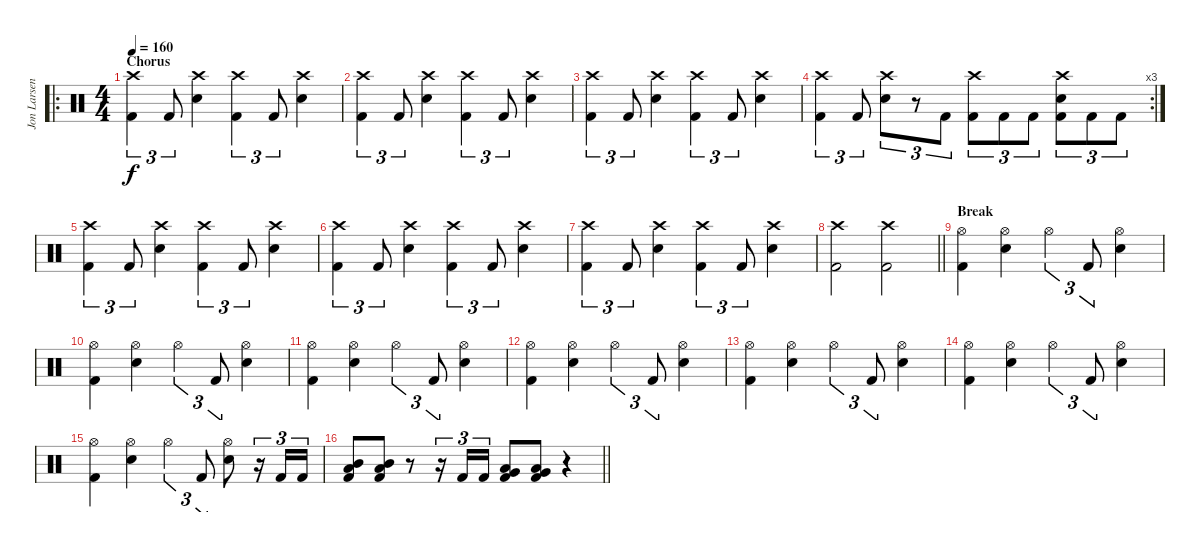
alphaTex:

\track ("Jon Larsen" "Jon Larsen") {instrument percussion}
\staff {score}
\articulation defaults
\ro
\ts (4 4)
\section ("" "Chorus")
\tempo 160
\clef neutral
\ks c
("Crash high (hit)" "Kick (hit) 2").4{tu (3 2) dy f} "Kick (hit) 2".8{tu (3 2)} ("Crash high (hit)" "Electric Snare (hit)").4 ("Crash high (hit)" "Kick (hit) 2").4{tu (3 2)} "Kick (hit) 2".8{tu (3 2)} ("Crash high (hit)" "Electric Snare (hit)").4 |
("Crash high (hit)" "Kick (hit) 2").4{tu (3 2)} "Kick (hit) 2".8{tu (3 2)} ("Crash high (hit)" "Electric Snare (hit)").4 ("Crash high (hit)" "Kick (hit) 2").4{tu (3 2)} "Kick (hit) 2".8{tu (3 2)} ("Crash high (hit)" "Electric Snare (hit)").4 |
("Crash high (hit)" "Kick (hit) 2").4{tu (3 2)} "Kick (hit) 2".8{tu (3 2)} ("Crash high (hit)" "Electric Snare (hit)").4 ("Crash high (hit)" "Kick (hit) 2").4{tu (3 2)} "Kick (hit) 2".8{tu (3 2)} ("Crash high (hit)" "Electric Snare (hit)").4 |
\rc 3
("Crash high (hit)" "Kick (hit) 2").4{tu (3 2)} "Kick (hit) 2".8{tu (3 2)} ("Crash high (hit)" "Electric Snare (hit)").8{tu (3 2)} r.8{tu (3 2)} "Kick (hit) 2".8{tu (3 2)} ("Crash high (hit)" "Kick (hit) 2").8{tu (3 2)} "Kick (hit) 2".8{tu (3 2)} "Kick (hit) 2".8{tu (3 2)} ("Crash high (hit)" "Electric Snare (hit)" "Kick (hit) 2").8{tu (3 2)} "Kick (hit) 2".8{tu (3 2)} "Kick (hit) 2".8{tu (3 2)} |
("Crash high (hit)" "Kick (hit) 2").4{tu (3 2)} "Kick (hit) 2".8{tu (3 2)} ("Crash high (hit)" "Electric Snare (hit)").4 ("Crash high (hit)" "Kick (hit) 2").4{tu (3 2)} "Kick (hit) 2".8{tu (3 2)} ("Crash high (hit)" "Electric Snare (hit)").4 |
("Crash high (hit)" "Kick (hit) 2").4{tu (3 2)} "Kick (hit) 2".8{tu (3 2)} ("Crash high (hit)" "Electric Snare (hit)").4 ("Crash high (hit)" "Kick (hit) 2").4{tu (3 2)} "Kick (hit) 2".8{tu (3 2)} ("Crash high (hit)" "Electric Snare (hit)").4 |
("Crash high (hit)" "Kick (hit) 2").4{tu (3 2)} "Kick (hit) 2".8{tu (3 2)} ("Crash high (hit)" "Electric Snare (hit)").4 ("Crash high (hit)" "Kick (hit) 2").4{tu (3 2)} "Kick (hit) 2".8{tu (3 2)} ("Crash high (hit)" "Electric Snare (hit)").4 |
\barLineRight lightlight
("Crash high (hit)" "Kick (hit) 2").2 ("Crash high (hit)" "Kick (hit) 2").2 |
\section ("" "Break")
("Hi-Hat (open)" "Kick (hit) 2").4 ("Hi-Hat (open)" "Electric Snare (hit)").4 "Hi-Hat (open)".4{tu (3 2)} "Kick (hit) 2".8{tu (3 2)} ("Hi-Hat (open)" "Electric Snare (hit)").4 |
("Hi-Hat (open)" "Kick (hit) 2").4 ("Hi-Hat (open)" "Electric Snare (hit)").4 "Hi-Hat (open)".4{tu (3 2)} "Kick (hit) 2".8{tu (3 2)} ("Hi-Hat (open)" "Electric Snare (hit)").4 |
("Hi-Hat (open)" "Kick (hit) 2").4 ("Hi-Hat (open)" "Electric Snare (hit)").4 "Hi-Hat (open)".4{tu (3 2)} "Kick (hit) 2".8{tu (3 2)} ("Hi-Hat (open)" "Electric Snare (hit)").4 |
("Hi-Hat (open)" "Kick (hit) 2").4 ("Hi-Hat (open)" "Electric Snare (hit)").4 "Hi-Hat (open)".4{tu (3 2)} "Kick (hit) 2".8{tu (3 2)} ("Hi-Hat (open)" "Electric Snare (hit)").4 |
("Hi-Hat (open)" "Kick (hit) 2").4 ("Hi-Hat (open)" "Electric Snare (hit)").4 "Hi-Hat (open)".4{tu (3 2)} "Kick (hit) 2".8{tu (3 2)} ("Hi-Hat (open)" "Electric Snare (hit)").4 |
("Hi-Hat (open)" "Kick (hit) 2").4 ("Hi-Hat (open)" "Electric Snare (hit)").4 "Hi-Hat (open)".4{tu (3 2)} "Kick (hit) 2".8{tu (3 2)} ("Hi-Hat (open)" "Electric Snare (hit)").4 |
("Hi-Hat (open)" "Kick (hit) 2").4 ("Hi-Hat (open)" "Electric Snare (hit)").4 "Hi-Hat (open)".4{tu (3 2)} "Kick (hit) 2".8{tu (3 2)} ("Hi-Hat (open)" "Electric Snare (hit)").8 r.16{tu (3 2)} "Kick (hit) 2".16{tu (3 2)} "Kick (hit) 2".16{tu (3 2)} |
\barLineRight lightlight
("Mid Tom (hit)" "Low Tom (hit)" "Kick (hit) 2").8 ("Mid Tom (hit)" "Low Tom (hit)" "Kick (hit) 2").8 r.8 r.16{tu (3 2)} "Kick (hit) 2".16{tu (3 2)} "Kick (hit) 2".16{tu (3 2)} ("Low Tom (hit)" "Very Low Tom (hit)" "Kick (hit) 2").8 ("Low Tom (hit)" "Very Low Tom (hit)" "Kick (hit) 2").8 r.4
